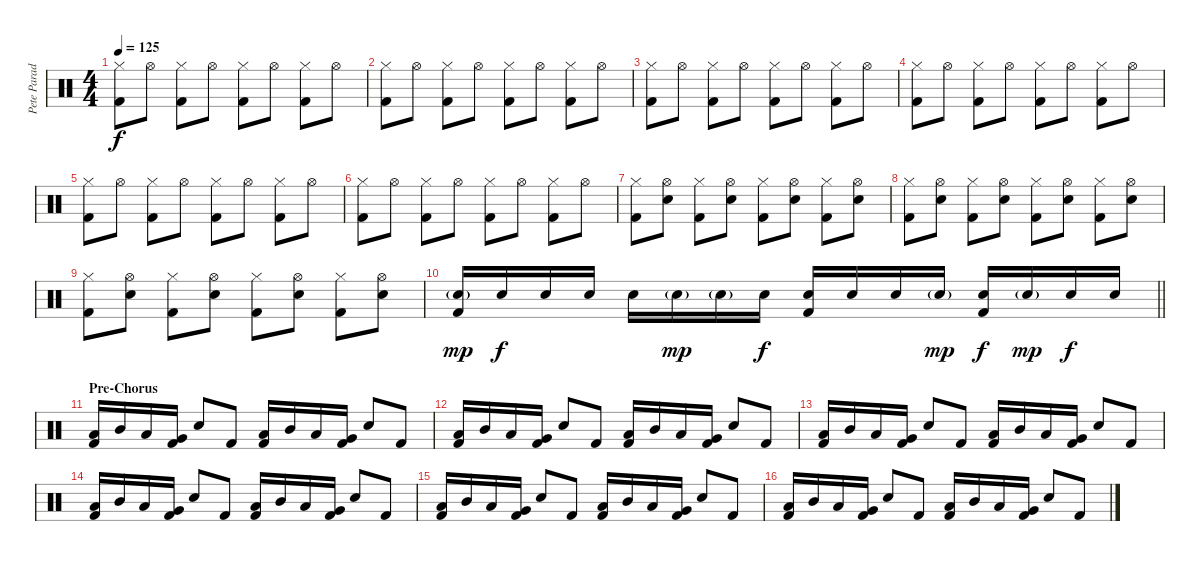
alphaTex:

\track ("Pete Parada - Drums" "Pete Parad") {instrument percussion}
\staff {score}
\articulation defaults
\ts (4 4)
\tempo 125
\clef neutral
\ks c
("Hi-Hat (closed)" "Kick (hit) 2").8{dy f} "Hi-Hat (open)".8 ("Hi-Hat (closed)" "Kick (hit) 2").8 "Hi-Hat (open)".8 ("Hi-Hat (closed)" "Kick (hit) 2").8 "Hi-Hat (open)".8 ("Hi-Hat (closed)" "Kick (hit) 2").8 "Hi-Hat (open)".8 |
("Hi-Hat (closed)" "Kick (hit) 2").8 "Hi-Hat (open)".8 ("Hi-Hat (closed)" "Kick (hit) 2").8 "Hi-Hat (open)".8 ("Hi-Hat (closed)" "Kick (hit) 2").8 "Hi-Hat (open)".8 ("Hi-Hat (closed)" "Kick (hit) 2").8 "Hi-Hat (open)".8 |
("Hi-Hat (closed)" "Kick (hit) 2").8 "Hi-Hat (open)".8 ("Hi-Hat (closed)" "Kick (hit) 2").8 "Hi-Hat (open)".8 ("Hi-Hat (closed)" "Kick (hit) 2").8 "Hi-Hat (open)".8 ("Hi-Hat (closed)" "Kick (hit) 2").8 "Hi-Hat (open)".8 |
("Hi-Hat (closed)" "Kick (hit) 2").8 "Hi-Hat (open)".8 ("Hi-Hat (closed)" "Kick (hit) 2").8 "Hi-Hat (open)".8 ("Hi-Hat (closed)" "Kick (hit) 2").8 "Hi-Hat (open)".8 ("Hi-Hat (closed)" "Kick (hit) 2").8 "Hi-Hat (open)".8 |
("Hi-Hat (closed)" "Kick (hit) 2").8 "Hi-Hat (open)".8 ("Hi-Hat (closed)" "Kick (hit) 2").8 "Hi-Hat (open)".8 ("Hi-Hat (closed)" "Kick (hit) 2").8 "Hi-Hat (open)".8 ("Hi-Hat (closed)" "Kick (hit) 2").8 "Hi-Hat (open)".8 |
("Hi-Hat (closed)" "Kick (hit) 2").8 "Hi-Hat (open)".8 ("Hi-Hat (closed)" "Kick (hit) 2").8 "Hi-Hat (open)".8 ("Hi-Hat (closed)" "Kick (hit) 2").8 "Hi-Hat (open)".8 ("Hi-Hat (closed)" "Kick (hit) 2").8 "Hi-Hat (open)".8 |
("Hi-Hat (closed)" "Kick (hit) 2").8 ("Hi-Hat (open)" "Electric Snare (hit)").8 ("Hi-Hat (closed)" "Kick (hit) 2").8 ("Hi-Hat (open)" "Electric Snare (hit)").8 ("Hi-Hat (closed)" "Kick (hit) 2").8 ("Hi-Hat (open)" "Electric Snare (hit)").8 ("Hi-Hat (closed)" "Kick (hit) 2").8 ("Hi-Hat (open)" "Electric Snare (hit)").8 |
("Hi-Hat (closed)" "Kick (hit) 2").8 ("Hi-Hat (open)" "Electric Snare (hit)").8 ("Hi-Hat (closed)" "Kick (hit) 2").8 ("Hi-Hat (open)" "Electric Snare (hit)").8 ("Hi-Hat (closed)" "Kick (hit) 2").8 ("Hi-Hat (open)" "Electric Snare (hit)").8 ("Hi-Hat (closed)" "Kick (hit) 2").8 ("Hi-Hat (open)" "Electric Snare (hit)").8 |
("Hi-Hat (closed)" "Kick (hit) 2").8 ("Hi-Hat (open)" "Electric Snare (hit)").8 ("Hi-Hat (closed)" "Kick (hit) 2").8 ("Hi-Hat (open)" "Electric Snare (hit)").8 ("Hi-Hat (closed)" "Kick (hit) 2").8 ("Hi-Hat (open)" "Electric Snare (hit)").8 ("Hi-Hat (closed)" "Kick (hit) 2").8 ("Hi-Hat (open)" "Electric Snare (hit)").8 |
\barLineRight lightlight
("Electric Snare (hit)"{g} "Kick (hit) 2").16{dy mp} "Electric Snare (hit)".16{dy f} "Electric Snare (hit)".16 "Electric Snare (hit)".16 "Electric Snare (hit)".16 "Electric Snare (hit)"{g}.16{dy mp} "Electric Snare (hit)"{g}.16 "Electric Snare (hit)".16{dy f} ("Electric Snare (hit)" "Kick (hit) 2").16 "Electric Snare (hit)".16 "Electric Snare (hit)".16 "Electric Snare (hit)"{g}.16{dy mp} ("Electric Snare (hit)" "Kick (hit) 2").16{dy f} "Electric Snare (hit)"{g}.16{dy mp} "Electric Snare (hit)".16{dy f} "Electric Snare (hit)".16 |
\section ("" "Pre-Chorus")
("Low Tom (hit)" "Kick (hit) 2").16 "Mid Tom (hit)".16 "Low Tom (hit)".16 ("Very Low Tom (hit)" "Kick (hit) 2").16 "Electric Snare (hit)".8 "Kick (hit) 2".8 ("Low Tom (hit)" "Kick (hit) 2").16 "Mid Tom (hit)".16 "Low Tom (hit)".16 ("Very Low Tom (hit)" "Kick (hit) 2").16 "Electric Snare (hit)".8 "Kick (hit) 2".8 |
("Low Tom (hit)" "Kick (hit) 2").16 "Mid Tom (hit)".16 "Low Tom (hit)".16 ("Very Low Tom (hit)" "Kick (hit) 2").16 "Electric Snare (hit)".8 "Kick (hit) 2".8 ("Low Tom (hit)" "Kick (hit) 2").16 "Mid Tom (hit)".16 "Low Tom (hit)".16 ("Very Low Tom (hit)" "Kick (hit) 2").16 "Electric Snare (hit)".8 "Kick (hit) 2".8 |
("Low Tom (hit)" "Kick (hit) 2").16 "Mid Tom (hit)".16 "Low Tom (hit)".16 ("Very Low Tom (hit)" "Kick (hit) 2").16 "Electric Snare (hit)".8 "Kick (hit) 2".8 ("Low Tom (hit)" "Kick (hit) 2").16 "Mid Tom (hit)".16 "Low Tom (hit)".16 ("Very Low Tom (hit)" "Kick (hit) 2").16 "Electric Snare (hit)".8 "Kick (hit) 2".8 |
("Low Tom (hit)" "Kick (hit) 2").16 "Mid Tom (hit)".16 "Low Tom (hit)".16 ("Very Low Tom (hit)" "Kick (hit) 2").16 "Electric Snare (hit)".8 "Kick (hit) 2".8 ("Low Tom (hit)" "Kick (hit) 2").16 "Mid Tom (hit)".16 "Low Tom (hit)".16 ("Very Low Tom (hit)" "Kick (hit) 2").16 "Electric Snare (hit)".8 "Kick (hit) 2".8 |
("Low Tom (hit)" "Kick (hit) 2").16 "Mid Tom (hit)".16 "Low Tom (hit)".16 ("Very Low Tom (hit)" "Kick (hit) 2").16 "Electric Snare (hit)".8 "Kick (hit) 2".8 ("Low Tom (hit)" "Kick (hit) 2").16 "Mid Tom (hit)".16 "Low Tom (hit)".16 ("Very Low Tom (hit)" "Kick (hit) 2").16 "Electric Snare (hit)".8 "Kick (hit) 2".8 |
("Low Tom (hit)" "Kick (hit) 2").16 "Mid Tom (hit)".16 "Low Tom (hit)".16 ("Very Low Tom (hit)" "Kick (hit) 2").16 "Electric Snare (hit)".8 "Kick (hit) 2".8 ("Low Tom (hit)" "Kick (hit) 2").16 "Mid Tom (hit)".16 "Low Tom (hit)".16 ("Very Low Tom (hit)" "Kick (hit) 2").16 "Electric Snare (hit)".8 "Kick (hit) 2".8
